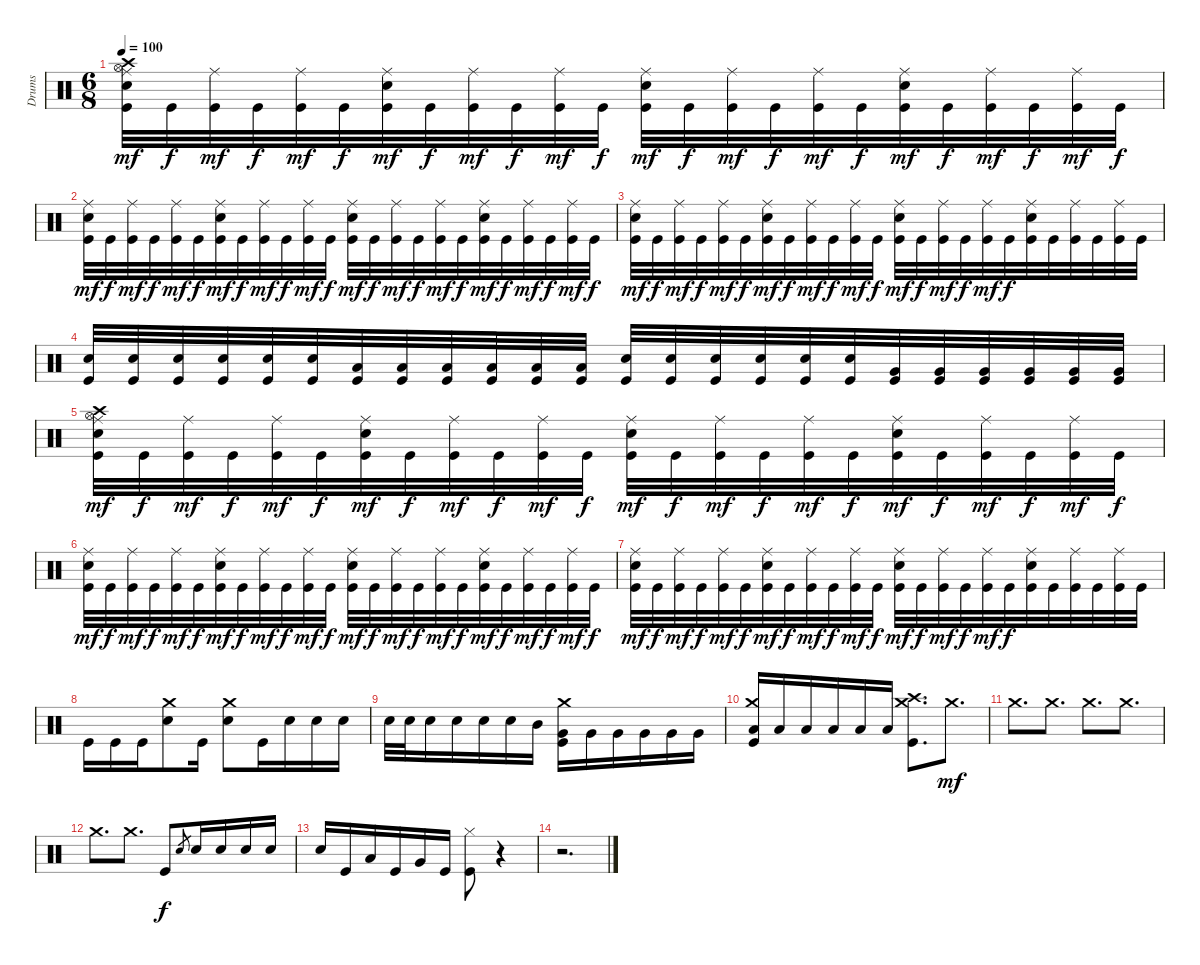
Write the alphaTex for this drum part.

\track ("Drums" "Drums") {instrument percussion}
\staff {score}
\articulation defaults
\ts (6 8)
\tempo 100
\clef neutral
\ks c
("Crash high (hit)" "Hi-Hat (open)" "Ride (middle)" "Electric Snare (hit)" "Kick (hit)").32{dy mf} "Kick (hit)".32{dy f} ("Ride (middle)" "Kick (hit)").32{dy mf} "Kick (hit)".32{dy f} ("Ride (middle)" "Kick (hit)").32{dy mf} "Kick (hit)".32{dy f} ("Ride (middle)" "Electric Snare (hit)" "Kick (hit)").32{dy mf} "Kick (hit)".32{dy f} ("Ride (middle)" "Kick (hit)").32{dy mf} "Kick (hit)".32{dy f} ("Ride (middle)" "Kick (hit)").32{dy mf} "Kick (hit)".32{dy f} ("Ride (middle)" "Electric Snare (hit)" "Kick (hit)").32{dy mf} "Kick (hit)".32{dy f} ("Ride (middle)" "Kick (hit)").32{dy mf} "Kick (hit)".32{dy f} ("Ride (middle)" "Kick (hit)").32{dy mf} "Kick (hit)".32{dy f} ("Ride (middle)" "Electric Snare (hit)" "Kick (hit)").32{dy mf} "Kick (hit)".32{dy f} ("Ride (middle)" "Kick (hit)").32{dy mf} "Kick (hit)".32{dy f} ("Ride (middle)" "Kick (hit)").32{dy mf} "Kick (hit)".32{dy f} |
("Ride (middle)" "Electric Snare (hit)" "Kick (hit)").32{dy mf} "Kick (hit)".32{dy f} ("Ride (middle)" "Kick (hit)").32{dy mf} "Kick (hit)".32{dy f} ("Ride (middle)" "Kick (hit)").32{dy mf} "Kick (hit)".32{dy f} ("Ride (middle)" "Electric Snare (hit)" "Kick (hit)").32{dy mf} "Kick (hit)".32{dy f} ("Ride (middle)" "Kick (hit)").32{dy mf} "Kick (hit)".32{dy f} ("Ride (middle)" "Kick (hit)").32{dy mf} "Kick (hit)".32{dy f} ("Ride (middle)" "Electric Snare (hit)" "Kick (hit)").32{dy mf} "Kick (hit)".32{dy f} ("Ride (middle)" "Kick (hit)").32{dy mf} "Kick (hit)".32{dy f} ("Ride (middle)" "Kick (hit)").32{dy mf} "Kick (hit)".32{dy f} ("Ride (middle)" "Electric Snare (hit)" "Kick (hit)").32{dy mf} "Kick (hit)".32{dy f} ("Ride (middle)" "Kick (hit)").32{dy mf} "Kick (hit)".32{dy f} ("Ride (middle)" "Kick (hit)").32{dy mf} "Kick (hit)".32{dy f} |
("Ride (middle)" "Electric Snare (hit)" "Kick (hit)").32{dy mf} "Kick (hit)".32{dy f} ("Ride (middle)" "Kick (hit)").32{dy mf} "Kick (hit)".32{dy f} ("Ride (middle)" "Kick (hit)").32{dy mf} "Kick (hit)".32{dy f} ("Ride (middle)" "Electric Snare (hit)" "Kick (hit)").32{dy mf} "Kick (hit)".32{dy f} ("Ride (middle)" "Kick (hit)").32{dy mf} "Kick (hit)".32{dy f} ("Ride (middle)" "Kick (hit)").32{dy mf} "Kick (hit)".32{dy f} ("Ride (middle)" "Electric Snare (hit)" "Kick (hit)").32{dy mf} "Kick (hit)".32{dy f} ("Ride (middle)" "Kick (hit)").32{dy mf} "Kick (hit)".32{dy f} ("Ride (middle)" "Kick (hit)").32{dy mf} "Kick (hit)".32{dy f} ("Ride (middle)" "Electric Snare (hit)" "Kick (hit)").32 "Kick (hit)".32 ("Ride (middle)" "Kick (hit)").32 "Kick (hit)".32 ("Ride (middle)" "Kick (hit)").32 "Kick (hit)".32 |
("Electric Snare (hit)" "Kick (hit)").32 ("Electric Snare (hit)" "Kick (hit)").32 ("Electric Snare (hit)" "Kick (hit)").32 ("Electric Snare (hit)" "Kick (hit)").32 ("Electric Snare (hit)" "Kick (hit)").32 ("Electric Snare (hit)" "Kick (hit)").32 ("Low Tom (hit)" "Kick (hit)").32 ("Low Tom (hit)" "Kick (hit)").32 ("Low Tom (hit)" "Kick (hit)").32 ("Low Tom (hit)" "Kick (hit)").32 ("Low Tom (hit)" "Kick (hit)").32 ("Low Tom (hit)" "Kick (hit)").32 ("Electric Snare (hit)" "Kick (hit)").32 ("Electric Snare (hit)" "Kick (hit)").32 ("Electric Snare (hit)" "Kick (hit)").32 ("Electric Snare (hit)" "Kick (hit)").32 ("Electric Snare (hit)" "Kick (hit)").32 ("Electric Snare (hit)" "Kick (hit)").32 ("Very Low Tom (hit)" "Kick (hit)").32 ("Very Low Tom (hit)" "Kick (hit)").32 ("Very Low Tom (hit)" "Kick (hit)").32 ("Very Low Tom (hit)" "Kick (hit)").32 ("Very Low Tom (hit)" "Kick (hit)").32 ("Very Low Tom (hit)" "Kick (hit)").32 |
("Crash high (hit)" "Hi-Hat (open)" "Ride (middle)" "Electric Snare (hit)" "Kick (hit)").32{dy mf} "Kick (hit)".32{dy f} ("Ride (middle)" "Kick (hit)").32{dy mf} "Kick (hit)".32{dy f} ("Ride (middle)" "Kick (hit)").32{dy mf} "Kick (hit)".32{dy f} ("Ride (middle)" "Electric Snare (hit)" "Kick (hit)").32{dy mf} "Kick (hit)".32{dy f} ("Ride (middle)" "Kick (hit)").32{dy mf} "Kick (hit)".32{dy f} ("Ride (middle)" "Kick (hit)").32{dy mf} "Kick (hit)".32{dy f} ("Ride (middle)" "Electric Snare (hit)" "Kick (hit)").32{dy mf} "Kick (hit)".32{dy f} ("Ride (middle)" "Kick (hit)").32{dy mf} "Kick (hit)".32{dy f} ("Ride (middle)" "Kick (hit)").32{dy mf} "Kick (hit)".32{dy f} ("Ride (middle)" "Electric Snare (hit)" "Kick (hit)").32{dy mf} "Kick (hit)".32{dy f} ("Ride (middle)" "Kick (hit)").32{dy mf} "Kick (hit)".32{dy f} ("Ride (middle)" "Kick (hit)").32{dy mf} "Kick (hit)".32{dy f} |
("Ride (middle)" "Electric Snare (hit)" "Kick (hit)").32{dy mf} "Kick (hit)".32{dy f} ("Ride (middle)" "Kick (hit)").32{dy mf} "Kick (hit)".32{dy f} ("Ride (middle)" "Kick (hit)").32{dy mf} "Kick (hit)".32{dy f} ("Ride (middle)" "Electric Snare (hit)" "Kick (hit)").32{dy mf} "Kick (hit)".32{dy f} ("Ride (middle)" "Kick (hit)").32{dy mf} "Kick (hit)".32{dy f} ("Ride (middle)" "Kick (hit)").32{dy mf} "Kick (hit)".32{dy f} ("Ride (middle)" "Electric Snare (hit)" "Kick (hit)").32{dy mf} "Kick (hit)".32{dy f} ("Ride (middle)" "Kick (hit)").32{dy mf} "Kick (hit)".32{dy f} ("Ride (middle)" "Kick (hit)").32{dy mf} "Kick (hit)".32{dy f} ("Ride (middle)" "Electric Snare (hit)" "Kick (hit)").32{dy mf} "Kick (hit)".32{dy f} ("Ride (middle)" "Kick (hit)").32{dy mf} "Kick (hit)".32{dy f} ("Ride (middle)" "Kick (hit)").32{dy mf} "Kick (hit)".32{dy f} |
("Ride (middle)" "Electric Snare (hit)" "Kick (hit)").32{dy mf} "Kick (hit)".32{dy f} ("Ride (middle)" "Kick (hit)").32{dy mf} "Kick (hit)".32{dy f} ("Ride (middle)" "Kick (hit)").32{dy mf} "Kick (hit)".32{dy f} ("Ride (middle)" "Electric Snare (hit)" "Kick (hit)").32{dy mf} "Kick (hit)".32{dy f} ("Ride (middle)" "Kick (hit)").32{dy mf} "Kick (hit)".32{dy f} ("Ride (middle)" "Kick (hit)").32{dy mf} "Kick (hit)".32{dy f} ("Ride (middle)" "Electric Snare (hit)" "Kick (hit)").32{dy mf} "Kick (hit)".32{dy f} ("Ride (middle)" "Kick (hit)").32{dy mf} "Kick (hit)".32{dy f} ("Ride (middle)" "Kick (hit)").32{dy mf} "Kick (hit)".32{dy f} ("Ride (middle)" "Electric Snare (hit)" "Kick (hit)").32 "Kick (hit)".32 ("Ride (middle)" "Kick (hit)").32 "Kick (hit)".32 ("Ride (middle)" "Kick (hit)").32 "Kick (hit)".32 |
"Kick (hit)".16 "Kick (hit)".16 "Kick (hit)".16 ("Crash medium (hit)" "Electric Snare (hit)").8 "Kick (hit)".16 ("Crash medium (hit)" "Electric Snare (hit)").8 "Kick (hit)".16 "Electric Snare (hit)".16 "Electric Snare (hit)".16 "Electric Snare (hit)".16 |
"Electric Snare (hit)".32 "Electric Snare (hit)".32 "Electric Snare (hit)".16 "Electric Snare (hit)".16 "Electric Snare (hit)".16 "Electric Snare (hit)".16 "Mid Tom (hit)".16 ("Crash medium (hit)" "Very Low Tom (hit)" "Kick (hit)").16 "Very Low Tom (hit)".16 "Very Low Tom (hit)".16 "Very Low Tom (hit)".16 "Very Low Tom (hit)".16 "Very Low Tom (hit)".16 |
("Crash medium (hit)" "Low Floor Tom (hit)" "Kick (hit)").16 "Low Floor Tom (hit)".16 "Low Floor Tom (hit)".16 "Low Floor Tom (hit)".16 "Low Floor Tom (hit)".16 "Low Floor Tom (hit)".16 ("Crash high (hit)" "Crash medium (hit)" "Kick (hit)").8{d} "Crash medium (hit)".8{d dy mf} |
"Crash medium (hit)".8{d} "Crash medium (hit)".8{d} "Crash medium (hit)".8{d} "Crash medium (hit)".8{d} |
"Crash medium (hit)".8{d} "Crash medium (hit)".8{d} "Kick (hit)".8{dy f} "Electric Snare (hit)".8{gr} "Electric Snare (hit)".16 "Electric Snare (hit)".16 "Electric Snare (hit)".16 "Electric Snare (hit)".16 |
"Electric Snare (hit)".16 "Kick (hit)".16 "Low Tom (hit)".16 "Kick (hit)".16 "Very Low Tom (hit)".16 "Kick (hit)".16 ("Hi-Hat (closed)" "Kick (hit)").8 r.4 |
r.2{d}
